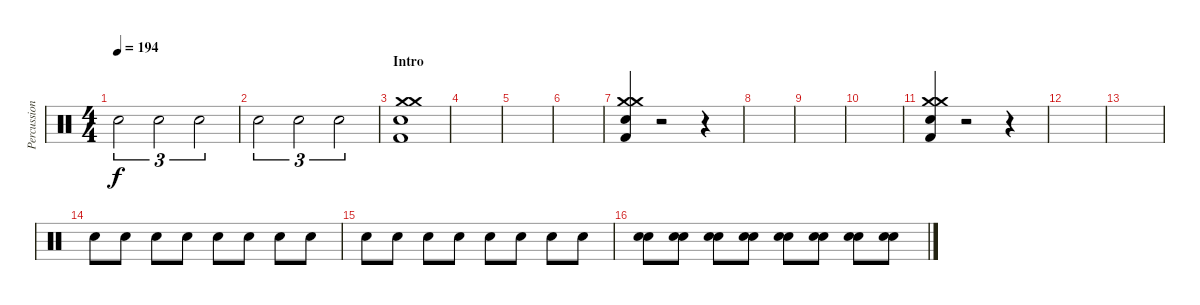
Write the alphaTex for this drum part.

\track ("Percussions" "Percussion") {instrument percussion}
\staff {score}
\articulation defaults
\ts (4 4)
\tempo 194
\clef neutral
\ks c "Snare (hit) 2".2{tu (3 2) dy f} "Snare (hit) 2".2{tu (3 2)} "Snare (hit) 2".2{tu (3 2)}
|
"Snare (hit) 2".2{tu (3 2)} "Snare (hit) 2".2{tu (3 2)} "Snare (hit) 2".2{tu (3 2)} |
\section ("" "Intro")
("Crash medium (hit)" "Crash medium (hit)" "Snare (hit) 2" "Kick (hit) 2").1 |
|
|
|
("Crash medium (hit)" "Crash medium (hit)" "Snare (hit) 2" "Kick (hit) 2").4 r.2 r.4 |
|
|
|
("Crash medium (hit)" "Crash medium (hit)" "Snare (hit) 2" "Kick (hit) 2").4 r.2 r.4 |
|
|
"Snare (hit) 2".8 "Snare (hit) 2".8 "Snare (hit) 2".8 "Snare (hit) 2".8 "Snare (hit) 2".8 "Snare (hit) 2".8 "Snare (hit) 2".8 "Snare (hit) 2".8 |
"Snare (hit) 2".8 "Snare (hit) 2".8 "Snare (hit) 2".8 "Snare (hit) 2".8 "Snare (hit) 2".8 "Snare (hit) 2".8 "Snare (hit) 2".8 "Snare (hit) 2".8 |
("Snare (hit) 2" "Snare (hit) 2").8 ("Snare (hit) 2" "Snare (hit) 2").8 ("Snare (hit) 2" "Snare (hit) 2").8 ("Snare (hit) 2" "Snare (hit) 2").8 ("Snare (hit) 2" "Snare (hit) 2").8 ("Snare (hit) 2" "Snare (hit) 2").8 ("Snare (hit) 2" "Snare (hit) 2").8 ("Snare (hit) 2" "Snare (hit) 2").8
